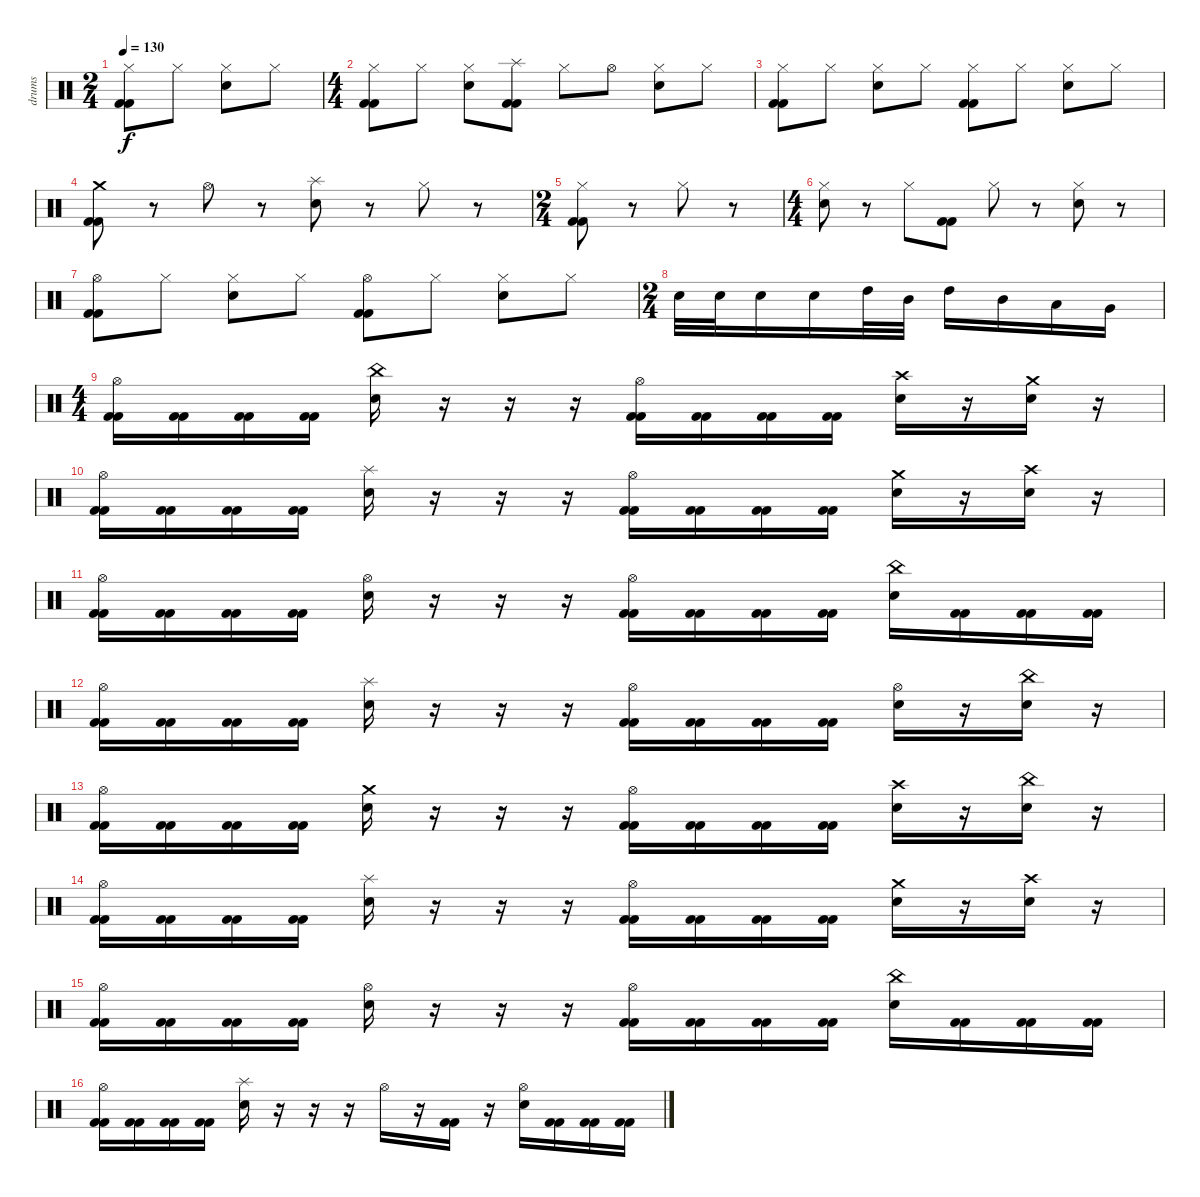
\track ("drums" "drums") {instrument percussion}
\staff {score}
\articulation defaults
\ts (2 4)
\tempo 130
\clef neutral
\ks c
("Hi-Hat (closed)" "Kick (hit) 2" "Kick (hit) 2").8{dy f} "Hi-Hat (closed)".8 ("Hi-Hat (closed)" "Electric Snare (hit)").8 "Hi-Hat (closed)".8 |
\ts (4 4)
("Hi-Hat (closed)" "Kick (hit) 2" "Kick (hit) 2").8 "Hi-Hat (closed)".8 ("Hi-Hat (closed)" "Electric Snare (hit)").8 ("Splash (hit)" "Kick (hit) 2" "Kick (hit) 2").8 "Hi-Hat (closed)".8 "Hi-Hat (open)".8 ("Hi-Hat (closed)" "Electric Snare (hit)").8 "Hi-Hat (closed)".8 |
("Hi-Hat (closed)" "Kick (hit) 2" "Kick (hit) 2").8 "Hi-Hat (closed)".8 ("Hi-Hat (closed)" "Electric Snare (hit)").8 "Hi-Hat (closed)".8 ("Hi-Hat (closed)" "Kick (hit) 2" "Kick (hit) 2").8 "Hi-Hat (closed)".8 ("Hi-Hat (closed)" "Electric Snare (hit)").8 "Hi-Hat (closed)".8 |
("Crash medium (hit)" "Kick (hit) 2" "Kick (hit) 2").8 r.8 "Hi-Hat (open)".8 r.8 ("Splash (hit)" "Electric Snare (hit)").8 r.8 "Hi-Hat (closed)".8 r.8 |
\ts (2 4)
("Hi-Hat (closed)" "Kick (hit) 2" "Kick (hit) 2").8 r.8 "Hi-Hat (closed)".8 r.8 |
\ts (4 4)
("Hi-Hat (closed)" "Electric Snare (hit)").8 r.8 "Hi-Hat (closed)".8 ("Kick (hit) 2" "Kick (hit) 2").8 "Hi-Hat (closed)".8 r.8 ("Hi-Hat (closed)" "Electric Snare (hit)").8 r.8 |
("Hi-Hat (open)" "Kick (hit) 2" "Kick (hit) 2").8 "Hi-Hat (closed)".8 ("Hi-Hat (closed)" "Electric Snare (hit)").8 "Hi-Hat (closed)".8 ("Hi-Hat (open)" "Kick (hit) 2" "Kick (hit) 2").8 "Hi-Hat (closed)".8 ("Hi-Hat (closed)" "Electric Snare (hit)").8 "Hi-Hat (closed)".8 |
\ts (2 4)
"Electric Snare (hit)".32 "Electric Snare (hit)".32 "Electric Snare (hit)".16 "Electric Snare (hit)".16 "High Tom (hit)".32 "Mid Tom (hit)".32 "High Tom (hit)".16 "Mid Tom (hit)".16 "Low Tom (hit)".16 "Very Low Tom (hit)".16 |
\ts (4 4)
("Hi-Hat (open)" "Kick (hit) 2" "Kick (hit) 2").16 ("Kick (hit) 2" "Kick (hit) 2").16 ("Kick (hit) 2" "Kick (hit) 2").16 ("Kick (hit) 2" "Kick (hit) 2").16 ("China (hit)" "Electric Snare (hit)").16 r.16 r.16 r.16 ("Hi-Hat (open)" "Kick (hit) 2" "Kick (hit) 2").16 ("Kick (hit) 2" "Kick (hit) 2").16 ("Kick (hit) 2" "Kick (hit) 2").16 ("Kick (hit) 2" "Kick (hit) 2").16 ("Crash high (hit)" "Electric Snare (hit)").16 r.16 ("Crash medium (hit)" "Electric Snare (hit)").16 r.16 |
("Hi-Hat (open)" "Kick (hit) 2" "Kick (hit) 2").16 ("Kick (hit) 2" "Kick (hit) 2").16 ("Kick (hit) 2" "Kick (hit) 2").16 ("Kick (hit) 2" "Kick (hit) 2").16 ("Splash (hit)" "Electric Snare (hit)").16 r.16 r.16 r.16 ("Hi-Hat (open)" "Kick (hit) 2" "Kick (hit) 2").16 ("Kick (hit) 2" "Kick (hit) 2").16 ("Kick (hit) 2" "Kick (hit) 2").16 ("Kick (hit) 2" "Kick (hit) 2").16 ("Crash medium (hit)" "Electric Snare (hit)").16 r.16 ("Crash high (hit)" "Electric Snare (hit)").16 r.16 |
("Hi-Hat (open)" "Kick (hit) 2" "Kick (hit) 2").16 ("Kick (hit) 2" "Kick (hit) 2").16 ("Kick (hit) 2" "Kick (hit) 2").16 ("Kick (hit) 2" "Kick (hit) 2").16 ("Hi-Hat (open)" "Electric Snare (hit)").16 r.16 r.16 r.16 ("Hi-Hat (open)" "Kick (hit) 2" "Kick (hit) 2").16 ("Kick (hit) 2" "Kick (hit) 2").16 ("Kick (hit) 2" "Kick (hit) 2").16 ("Kick (hit) 2" "Kick (hit) 2").16 ("China (hit)" "Electric Snare (hit)").16 ("Kick (hit) 2" "Kick (hit) 2").16 ("Kick (hit) 2" "Kick (hit) 2").16 ("Kick (hit) 2" "Kick (hit) 2").16 |
("Hi-Hat (open)" "Kick (hit) 2" "Kick (hit) 2").16 ("Kick (hit) 2" "Kick (hit) 2").16 ("Kick (hit) 2" "Kick (hit) 2").16 ("Kick (hit) 2" "Kick (hit) 2").16 ("Splash (hit)" "Electric Snare (hit)").16 r.16 r.16 r.16 ("Hi-Hat (open)" "Kick (hit) 2" "Kick (hit) 2").16 ("Kick (hit) 2" "Kick (hit) 2").16 ("Kick (hit) 2" "Kick (hit) 2").16 ("Kick (hit) 2" "Kick (hit) 2").16 ("Hi-Hat (open)" "Electric Snare (hit)").16 r.16 ("China (hit)" "Electric Snare (hit)").16 r.16 |
("Hi-Hat (open)" "Kick (hit) 2" "Kick (hit) 2").16 ("Kick (hit) 2" "Kick (hit) 2").16 ("Kick (hit) 2" "Kick (hit) 2").16 ("Kick (hit) 2" "Kick (hit) 2").16 ("Crash medium (hit)" "Electric Snare (hit)").16 r.16 r.16 r.16 ("Hi-Hat (open)" "Kick (hit) 2" "Kick (hit) 2").16 ("Kick (hit) 2" "Kick (hit) 2").16 ("Kick (hit) 2" "Kick (hit) 2").16 ("Kick (hit) 2" "Kick (hit) 2").16 ("Crash high (hit)" "Electric Snare (hit)").16 r.16 ("China (hit)" "Electric Snare (hit)").16 r.16 |
("Hi-Hat (open)" "Kick (hit) 2" "Kick (hit) 2").16 ("Kick (hit) 2" "Kick (hit) 2").16 ("Kick (hit) 2" "Kick (hit) 2").16 ("Kick (hit) 2" "Kick (hit) 2").16 ("Splash (hit)" "Electric Snare (hit)").16 r.16 r.16 r.16 ("Hi-Hat (open)" "Kick (hit) 2" "Kick (hit) 2").16 ("Kick (hit) 2" "Kick (hit) 2").16 ("Kick (hit) 2" "Kick (hit) 2").16 ("Kick (hit) 2" "Kick (hit) 2").16 ("Crash medium (hit)" "Electric Snare (hit)").16 r.16 ("Crash high (hit)" "Electric Snare (hit)").16 r.16 |
("Hi-Hat (open)" "Kick (hit) 2" "Kick (hit) 2").16 ("Kick (hit) 2" "Kick (hit) 2").16 ("Kick (hit) 2" "Kick (hit) 2").16 ("Kick (hit) 2" "Kick (hit) 2").16 ("Hi-Hat (open)" "Electric Snare (hit)").16 r.16 r.16 r.16 ("Hi-Hat (open)" "Kick (hit) 2" "Kick (hit) 2").16 ("Kick (hit) 2" "Kick (hit) 2").16 ("Kick (hit) 2" "Kick (hit) 2").16 ("Kick (hit) 2" "Kick (hit) 2").16 ("China (hit)" "Electric Snare (hit)").16 ("Kick (hit) 2" "Kick (hit) 2").16 ("Kick (hit) 2" "Kick (hit) 2").16 ("Kick (hit) 2" "Kick (hit) 2").16 |
("Hi-Hat (open)" "Kick (hit) 2" "Kick (hit) 2").16 ("Kick (hit) 2" "Kick (hit) 2").16 ("Kick (hit) 2" "Kick (hit) 2").16 ("Kick (hit) 2" "Kick (hit) 2").16 ("Splash (hit)" "Electric Snare (hit)").16 r.16 r.16 r.16 "Hi-Hat (open)".16 r.16 ("Kick (hit) 2" "Kick (hit) 2").16 r.16 ("Hi-Hat (open)" "Electric Snare (hit)").16 ("Kick (hit) 2" "Kick (hit) 2").16 ("Kick (hit) 2" "Kick (hit) 2").16 ("Kick (hit) 2" "Kick (hit) 2").16
